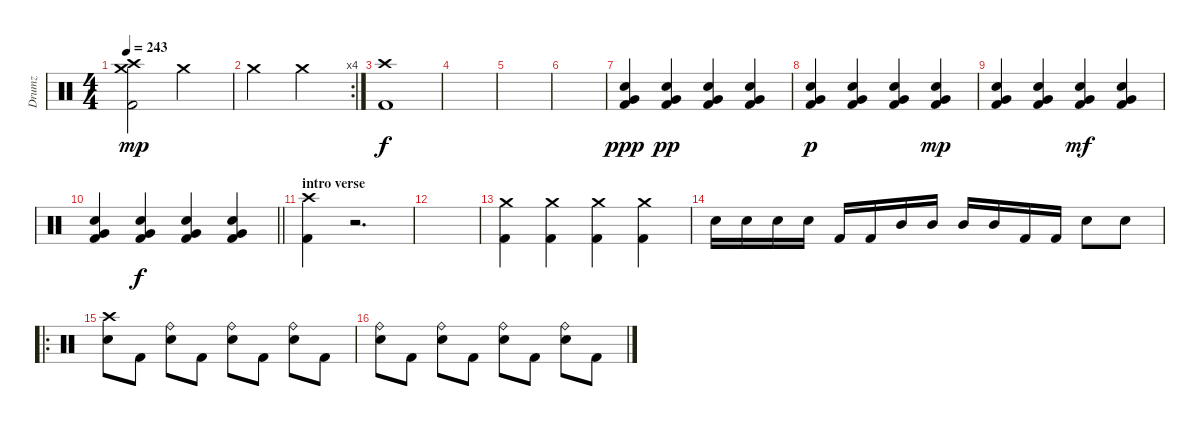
\track ("Drumz" "Drumz") {instrument percussion}
\staff {score}
\articulation defaults
\ts (4 4)
\tempo 243
\clef neutral
\ks c
("Crash high (hit)" "Crash medium (hit)" "Kick (hit) 2").2{dy mp} "Crash medium (hit)".2 |
\rc 4 "Crash medium (hit)".2 "Crash medium (hit)".2
|
("Crash high (hit)" "Kick (hit) 2").1{dy f} |
|
|
|
("Electric Snare (hit)" "Very Low Tom (hit)" "Kick (hit) 2").4{dy ppp} ("Electric Snare (hit)" "Very Low Tom (hit)" "Kick (hit) 2").4{dy pp} ("Electric Snare (hit)" "Very Low Tom (hit)" "Kick (hit) 2").4 ("Electric Snare (hit)" "Very Low Tom (hit)" "Kick (hit) 2").4 |
("Electric Snare (hit)" "Very Low Tom (hit)" "Kick (hit) 2").4{dy p} ("Electric Snare (hit)" "Very Low Tom (hit)" "Kick (hit) 2").4 ("Electric Snare (hit)" "Very Low Tom (hit)" "Kick (hit) 2").4 ("Electric Snare (hit)" "Very Low Tom (hit)" "Kick (hit) 2").4{dy mp} |
("Electric Snare (hit)" "Very Low Tom (hit)" "Kick (hit) 2").4 ("Electric Snare (hit)" "Very Low Tom (hit)" "Kick (hit) 2").4 ("Electric Snare (hit)" "Very Low Tom (hit)" "Kick (hit) 2").4{dy mf} ("Electric Snare (hit)" "Very Low Tom (hit)" "Kick (hit) 2").4 |
\barLineRight lightlight
("Electric Snare (hit)" "Very Low Tom (hit)" "Kick (hit) 2").4 ("Electric Snare (hit)" "Very Low Tom (hit)" "Kick (hit) 2").4{dy f} ("Electric Snare (hit)" "Very Low Tom (hit)" "Kick (hit) 2").4 ("Electric Snare (hit)" "Very Low Tom (hit)" "Kick (hit) 2").4 |
\section ("" "intro verse")
("Crash high (hit)" "Kick (hit) 2").4 r.2{d volume 0} |
|
("Crash medium (hit)" "Kick (hit) 2").4{volume 16} ("Crash medium (hit)" "Kick (hit) 2").4 ("Crash medium (hit)" "Kick (hit) 2").4 ("Crash medium (hit)" "Kick (hit) 2").4 |
"Electric Snare (hit)".16 "Electric Snare (hit)".16 "Electric Snare (hit)".16 "Electric Snare (hit)".16 "Kick (hit) 2".16 "Kick (hit) 2".16 "Mid Tom (hit)".16 "Mid Tom (hit)".16 "Mid Tom (hit)".16 "Mid Tom (hit)".16 "Kick (hit) 2".16 "Kick (hit) 2".16 "Electric Snare (hit)".8 "Electric Snare (hit)".8 |
\ro
("Crash high (hit)" "Electric Snare (hit)").8 "Kick (hit) 2".8 ("Ride (bell)" "Electric Snare (hit)").8 "Kick (hit) 2".8 ("Ride (bell)" "Electric Snare (hit)").8 "Kick (hit) 2".8 ("Ride (bell)" "Electric Snare (hit)").8 "Kick (hit) 2".8 |
("Ride (bell)" "Electric Snare (hit)").8 "Kick (hit) 2".8 ("Ride (bell)" "Electric Snare (hit)").8 "Kick (hit) 2".8 ("Ride (bell)" "Electric Snare (hit)").8 "Kick (hit) 2".8 ("Ride (bell)" "Electric Snare (hit)").8 "Kick (hit) 2".8
